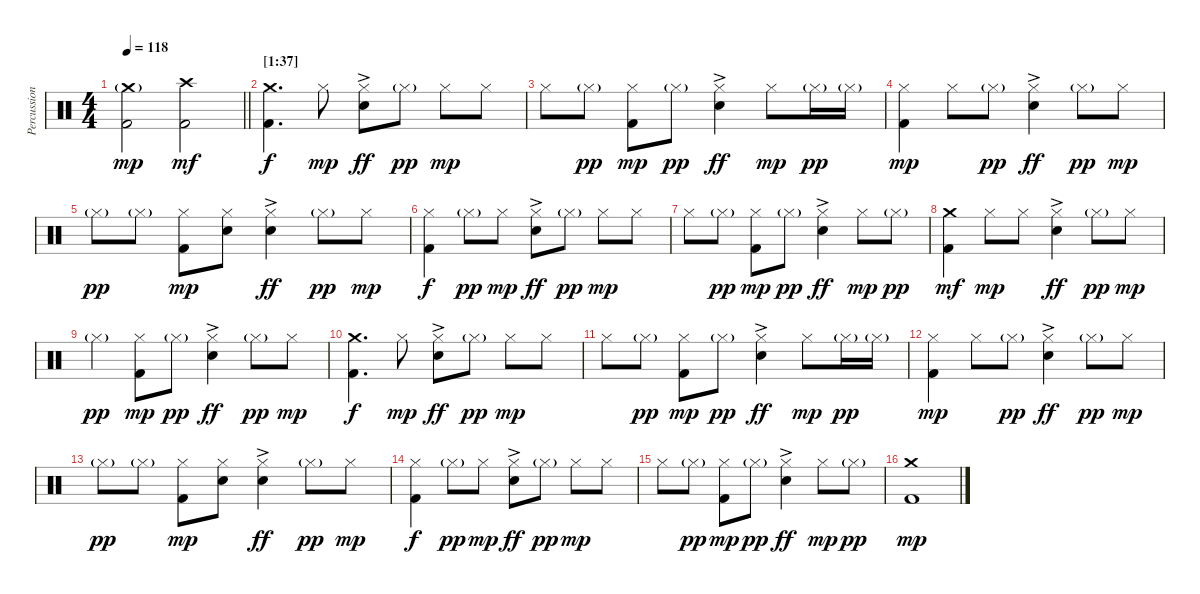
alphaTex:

\track ("Percussion" "Percussion") {instrument percussion}
\staff {score}
\articulation defaults
\ts (4 4)
\tempo 118
\clef neutral
\barLineRight lightlight
\ks c
("Crash medium (hit)"{g} "Kick (hit) 2").2{dy mp} ("Crash high (hit)" "Kick (hit) 2").2{dy mf} |
\section ("" "[1:37]")
("Crash medium (hit)" "Kick (hit) 2").4{d dy f} "Hi-Hat (closed)".8{dy mp} ("Hi-Hat (closed)" "Electric Snare (hit)"{ac}).8{dy ff} "Hi-Hat (closed)"{g}.8{dy pp} "Hi-Hat (closed)".8{dy mp} "Hi-Hat (closed)".8 |
"Hi-Hat (closed)".8 "Hi-Hat (closed)"{g}.8{dy pp} ("Hi-Hat (closed)" "Kick (hit) 2").8{dy mp} "Hi-Hat (closed)"{g}.8{dy pp} ("Hi-Hat (closed)" "Electric Snare (hit)"{ac}).4{dy ff} "Hi-Hat (closed)".8{dy mp} "Hi-Hat (closed)"{g}.16{dy pp} "Hi-Hat (closed)"{g}.16 |
("Hi-Hat (closed)" "Kick (hit) 2").4{dy mp} "Hi-Hat (closed)".8 "Hi-Hat (closed)"{g}.8{dy pp} ("Hi-Hat (closed)" "Electric Snare (hit)"{ac}).4{dy ff} "Hi-Hat (closed)"{g}.8{dy pp} "Hi-Hat (closed)".8{dy mp} |
"Hi-Hat (closed)"{g}.8{dy pp} "Hi-Hat (closed)"{g}.8 ("Hi-Hat (closed)" "Kick (hit) 2").8{dy mp} ("Hi-Hat (closed)" "Electric Snare (hit)").8 ("Hi-Hat (closed)" "Electric Snare (hit)"{ac}).4{dy ff} "Hi-Hat (closed)"{g}.8{dy pp} "Hi-Hat (closed)".8{dy mp} |
("Hi-Hat (closed)" "Kick (hit) 2").4{dy f} "Hi-Hat (closed)"{g}.8{dy pp} "Hi-Hat (closed)".8{dy mp} ("Hi-Hat (closed)" "Electric Snare (hit)"{ac}).8{dy ff} "Hi-Hat (closed)"{g}.8{dy pp} "Hi-Hat (closed)".8{dy mp} "Hi-Hat (closed)".8 |
"Hi-Hat (closed)".8 "Hi-Hat (closed)"{g}.8{dy pp} ("Hi-Hat (closed)" "Kick (hit) 2").8{dy mp} "Hi-Hat (closed)"{g}.8{dy pp} ("Hi-Hat (closed)" "Electric Snare (hit)"{ac}).4{dy ff} "Hi-Hat (closed)".8{dy mp} "Hi-Hat (closed)"{g}.8{dy pp} |
("Crash medium (hit)" "Kick (hit) 2").4{dy mf} "Hi-Hat (closed)".8{dy mp} "Hi-Hat (closed)".8 ("Hi-Hat (closed)" "Electric Snare (hit)"{ac}).4{dy ff} "Hi-Hat (closed)"{g}.8{dy pp} "Hi-Hat (closed)".8{dy mp} |
"Hi-Hat (closed)"{g}.4{dy pp} ("Hi-Hat (closed)" "Kick (hit) 2").8{dy mp} "Hi-Hat (closed)"{g}.8{dy pp} ("Hi-Hat (closed)" "Electric Snare (hit)"{ac}).4{dy ff} "Hi-Hat (closed)"{g}.8{dy pp} "Hi-Hat (closed)".8{dy mp} |
("Crash medium (hit)" "Kick (hit) 2").4{d dy f} "Hi-Hat (closed)".8{dy mp} ("Hi-Hat (closed)" "Electric Snare (hit)"{ac}).8{dy ff} "Hi-Hat (closed)"{g}.8{dy pp} "Hi-Hat (closed)".8{dy mp} "Hi-Hat (closed)".8 |
"Hi-Hat (closed)".8 "Hi-Hat (closed)"{g}.8{dy pp} ("Hi-Hat (closed)" "Kick (hit) 2").8{dy mp} "Hi-Hat (closed)"{g}.8{dy pp} ("Hi-Hat (closed)" "Electric Snare (hit)"{ac}).4{dy ff} "Hi-Hat (closed)".8{dy mp} "Hi-Hat (closed)"{g}.16{dy pp} "Hi-Hat (closed)"{g}.16 |
("Hi-Hat (closed)" "Kick (hit) 2").4{dy mp} "Hi-Hat (closed)".8 "Hi-Hat (closed)"{g}.8{dy pp} ("Hi-Hat (closed)" "Electric Snare (hit)"{ac}).4{dy ff} "Hi-Hat (closed)"{g}.8{dy pp} "Hi-Hat (closed)".8{dy mp} |
"Hi-Hat (closed)"{g}.8{dy pp} "Hi-Hat (closed)"{g}.8 ("Hi-Hat (closed)" "Kick (hit) 2").8{dy mp} ("Hi-Hat (closed)" "Electric Snare (hit)").8 ("Hi-Hat (closed)" "Electric Snare (hit)"{ac}).4{dy ff} "Hi-Hat (closed)"{g}.8{dy pp} "Hi-Hat (closed)".8{dy mp} |
("Hi-Hat (closed)" "Kick (hit) 2").4{dy f} "Hi-Hat (closed)"{g}.8{dy pp} "Hi-Hat (closed)".8{dy mp} ("Hi-Hat (closed)" "Electric Snare (hit)"{ac}).8{dy ff} "Hi-Hat (closed)"{g}.8{dy pp} "Hi-Hat (closed)".8{dy mp} "Hi-Hat (closed)".8 |
"Hi-Hat (closed)".8 "Hi-Hat (closed)"{g}.8{dy pp} ("Hi-Hat (closed)" "Kick (hit) 2").8{dy mp} "Hi-Hat (closed)"{g}.8{dy pp} ("Hi-Hat (closed)" "Electric Snare (hit)"{ac}).4{dy ff} "Hi-Hat (closed)".8{dy mp} "Hi-Hat (closed)"{g}.8{dy pp} |
("Crash medium (hit)" "Kick (hit) 2").1{dy mp}
